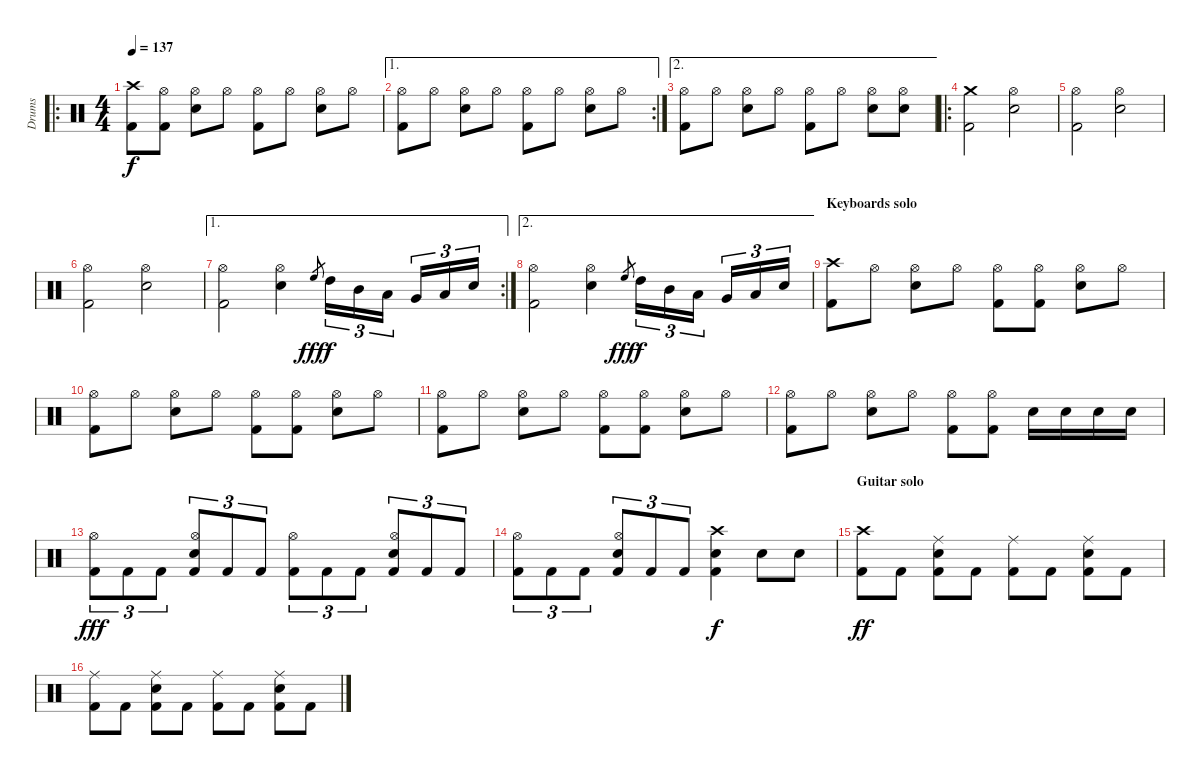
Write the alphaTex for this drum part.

\track ("Drums" "Drums") {instrument percussion}
\staff {score}
\articulation defaults
\ro
\ts (4 4)
\tempo 137
\clef neutral
\ks c
("Crash high (hit)" "Kick (hit) 2").8{dy f} ("Hi-Hat (open)" "Kick (hit) 2").8 ("Hi-Hat (open)" "Electric Snare (hit)").8 "Hi-Hat (open)".8 ("Hi-Hat (open)" "Kick (hit) 2").8 "Hi-Hat (open)".8 ("Hi-Hat (open)" "Electric Snare (hit)").8 "Hi-Hat (open)".8 |
\ae 1
\rc 2
("Hi-Hat (open)" "Kick (hit) 2").8 "Hi-Hat (open)".8 ("Hi-Hat (open)" "Electric Snare (hit)").8 "Hi-Hat (open)".8 ("Hi-Hat (open)" "Kick (hit) 2").8 "Hi-Hat (open)".8 ("Hi-Hat (open)" "Electric Snare (hit)").8 "Hi-Hat (open)".8 |
\ae 2
("Hi-Hat (open)" "Kick (hit) 2").8 "Hi-Hat (open)".8 ("Hi-Hat (open)" "Electric Snare (hit)").8 "Hi-Hat (open)".8 ("Hi-Hat (open)" "Kick (hit) 2").8 "Hi-Hat (open)".8 ("Hi-Hat (open)" "Electric Snare (hit)").8 ("Hi-Hat (open)" "Electric Snare (hit)").8 |
\ro
("Crash medium (hit)" "Kick (hit) 2").2 ("Hi-Hat (open)" "Electric Snare (hit)").2 |
("Hi-Hat (open)" "Kick (hit) 2").2 ("Hi-Hat (open)" "Electric Snare (hit)").2 |
("Hi-Hat (open)" "Kick (hit) 2").2 ("Hi-Hat (open)" "Electric Snare (hit)").2 |
\ae 1
\rc 2
("Hi-Hat (open)" "Kick (hit) 2").2 ("Hi-Hat (open)" "Electric Snare (hit)").4 "High Floor Tom (hit)".8{gr dy fff} "High Tom (hit)".16{tu (3 2) dy f} "Mid Tom (hit)".16{tu (3 2)} "Low Tom (hit)".16{tu (3 2)} "Very Low Tom (hit)".16{tu (3 2)} "Low Floor Tom (hit)".16{tu (3 2)} "Electric Snare (hit)".16{tu (3 2)} |
\ae 2
("Hi-Hat (open)" "Kick (hit) 2").2 ("Hi-Hat (open)" "Electric Snare (hit)").4 "High Floor Tom (hit)".8{gr dy fff} "High Tom (hit)".16{tu (3 2) dy f} "Mid Tom (hit)".16{tu (3 2)} "Low Tom (hit)".16{tu (3 2)} "Very Low Tom (hit)".16{tu (3 2)} "Low Floor Tom (hit)".16{tu (3 2)} "Electric Snare (hit)".16{tu (3 2)} |
\section ("" "Keyboards solo")
("Crash high (hit)" "Kick (hit) 2").8 "Hi-Hat (open)".8 ("Hi-Hat (open)" "Electric Snare (hit)").8 "Hi-Hat (open)".8 ("Hi-Hat (open)" "Kick (hit) 2").8 ("Hi-Hat (open)" "Kick (hit) 2").8 ("Hi-Hat (open)" "Electric Snare (hit)").8 "Hi-Hat (open)".8 |
("Hi-Hat (open)" "Kick (hit) 2").8 "Hi-Hat (open)".8 ("Hi-Hat (open)" "Electric Snare (hit)").8 "Hi-Hat (open)".8 ("Hi-Hat (open)" "Kick (hit) 2").8 ("Hi-Hat (open)" "Kick (hit) 2").8 ("Hi-Hat (open)" "Electric Snare (hit)").8 "Hi-Hat (open)".8 |
("Hi-Hat (open)" "Kick (hit) 2").8 "Hi-Hat (open)".8 ("Hi-Hat (open)" "Electric Snare (hit)").8 "Hi-Hat (open)".8 ("Hi-Hat (open)" "Kick (hit) 2").8 ("Hi-Hat (open)" "Kick (hit) 2").8 ("Hi-Hat (open)" "Electric Snare (hit)").8 "Hi-Hat (open)".8 |
("Hi-Hat (open)" "Kick (hit) 2").8 "Hi-Hat (open)".8 ("Hi-Hat (open)" "Electric Snare (hit)").8 "Hi-Hat (open)".8 ("Hi-Hat (open)" "Kick (hit) 2").8 ("Hi-Hat (open)" "Kick (hit) 2").8 "Electric Snare (hit)".16 "Electric Snare (hit)".16 "Electric Snare (hit)".16 "Electric Snare (hit)".16 |
("Kick (hit) 2" "Hi-Hat (open)").8{tu (3 2) dy fff} "Kick (hit) 2".8{tu (3 2)} "Kick (hit) 2".8{tu (3 2)} ("Kick (hit) 2" "Electric Snare (hit)" "Hi-Hat (open)").8{tu (3 2)} "Kick (hit) 2".8{tu (3 2)} "Kick (hit) 2".8{tu (3 2)} ("Kick (hit) 2" "Hi-Hat (open)").8{tu (3 2)} "Kick (hit) 2".8{tu (3 2)} "Kick (hit) 2".8{tu (3 2)} ("Kick (hit) 2" "Electric Snare (hit)" "Hi-Hat (open)").8{tu (3 2)} "Kick (hit) 2".8{tu (3 2)} "Kick (hit) 2".8{tu (3 2)} |
("Kick (hit) 2" "Hi-Hat (open)").8{tu (3 2)} "Kick (hit) 2".8{tu (3 2)} "Kick (hit) 2".8{tu (3 2)} ("Kick (hit) 2" "Electric Snare (hit)" "Hi-Hat (open)").8{tu (3 2)} "Kick (hit) 2".8{tu (3 2)} "Kick (hit) 2".8{tu (3 2)} ("Crash high (hit)" "Kick (hit) 2" "Electric Snare (hit)").4{dy f} "Electric Snare (hit)".8 "Electric Snare (hit)".8 |
\section ("" "Guitar solo")
("Kick (hit) 2" "Crash high (hit)").8{dy ff} "Kick (hit) 2".8 ("Kick (hit) 2" "Electric Snare (hit)" "Ride (middle)").8 "Kick (hit) 2".8 ("Kick (hit) 2" "Ride (middle)").8 "Kick (hit) 2".8 ("Kick (hit) 2" "Electric Snare (hit)" "Ride (middle)").8 "Kick (hit) 2".8 |
("Kick (hit) 2" "Ride (middle)").8 "Kick (hit) 2".8 ("Kick (hit) 2" "Electric Snare (hit)" "Ride (middle)").8 "Kick (hit) 2".8 ("Kick (hit) 2" "Ride (middle)").8 "Kick (hit) 2".8 ("Kick (hit) 2" "Electric Snare (hit)" "Ride (middle)").8 "Kick (hit) 2".8
